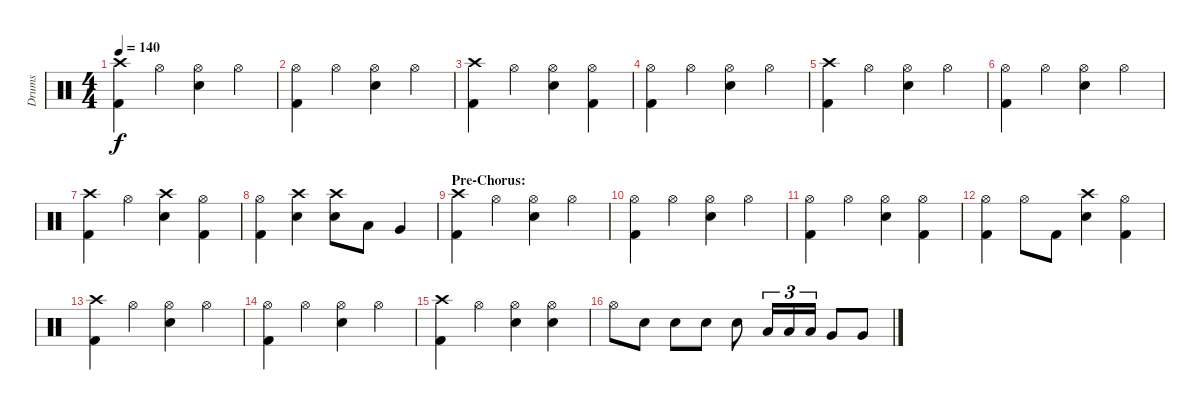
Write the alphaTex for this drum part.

\track ("Drums" "Drums") {instrument percussion}
\staff {score}
\articulation defaults
\ts (4 4)
\tempo 140
\clef neutral
\ks c
("Crash high (hit)" "Kick (hit) 2").4{dy f} "Hi-Hat (open)".4 ("Hi-Hat (open)" "Electric Snare (hit)").4 "Hi-Hat (open)".4 |
("Hi-Hat (open)" "Kick (hit) 2").4 "Hi-Hat (open)".4 ("Hi-Hat (open)" "Electric Snare (hit)").4 "Hi-Hat (open)".4 |
("Crash high (hit)" "Kick (hit) 2").4 "Hi-Hat (open)".4 ("Hi-Hat (open)" "Electric Snare (hit)").4 ("Hi-Hat (open)" "Kick (hit) 2").4 |
("Hi-Hat (open)" "Kick (hit) 2").4 "Hi-Hat (open)".4 ("Hi-Hat (open)" "Electric Snare (hit)").4 "Hi-Hat (open)".4 |
("Crash high (hit)" "Kick (hit) 2").4 "Hi-Hat (open)".4 ("Hi-Hat (open)" "Electric Snare (hit)").4 "Hi-Hat (open)".4 |
("Hi-Hat (open)" "Kick (hit) 2").4 "Hi-Hat (open)".4 ("Hi-Hat (open)" "Electric Snare (hit)").4 "Hi-Hat (open)".4 |
("Crash high (hit)" "Kick (hit) 2").4 "Hi-Hat (open)".4 ("Crash high (hit)" "Electric Snare (hit)").4 ("Hi-Hat (open)" "Kick (hit) 2").4 |
("Hi-Hat (open)" "Kick (hit) 2").4 ("Crash high (hit)" "Electric Snare (hit)").4 ("Crash high (hit)" "Electric Snare (hit)").8 "Low Tom (hit)".8 "Very Low Tom (hit)".4 |
\section ("" "Pre-Chorus:")
("Crash high (hit)" "Kick (hit) 2").4 "Hi-Hat (open)".4 ("Hi-Hat (open)" "Electric Snare (hit)").4 "Hi-Hat (open)".4 |
("Hi-Hat (open)" "Kick (hit) 2").4 "Hi-Hat (open)".4 ("Hi-Hat (open)" "Electric Snare (hit)").4 "Hi-Hat (open)".4 |
("Hi-Hat (open)" "Kick (hit) 2").4 "Hi-Hat (open)".4 ("Hi-Hat (open)" "Electric Snare (hit)").4 ("Hi-Hat (open)" "Kick (hit) 2").4 |
("Hi-Hat (open)" "Kick (hit) 2").4 "Hi-Hat (open)".8 "Kick (hit) 2".8 ("Crash high (hit)" "Electric Snare (hit)").4 ("Hi-Hat (open)" "Kick (hit) 2").4 |
("Crash high (hit)" "Kick (hit) 2").4 "Hi-Hat (open)".4 ("Hi-Hat (open)" "Electric Snare (hit)").4 "Hi-Hat (open)".4 |
("Hi-Hat (open)" "Kick (hit) 2").4 "Hi-Hat (open)".4 ("Hi-Hat (open)" "Electric Snare (hit)").4 "Hi-Hat (open)".4 |
("Crash high (hit)" "Kick (hit) 2").4 "Hi-Hat (open)".4 ("Hi-Hat (open)" "Electric Snare (hit)").4 ("Hi-Hat (open)" "Electric Snare (hit)").4 |
"Hi-Hat (open)".8 "Electric Snare (hit)".8 "Electric Snare (hit)".8 "Electric Snare (hit)".8 "Electric Snare (hit)".8 "Low Tom (hit)".16{tu (3 2)} "Low Tom (hit)".16{tu (3 2)} "Low Tom (hit)".16{tu (3 2)} "Very Low Tom (hit)".8 "Very Low Tom (hit)".8
